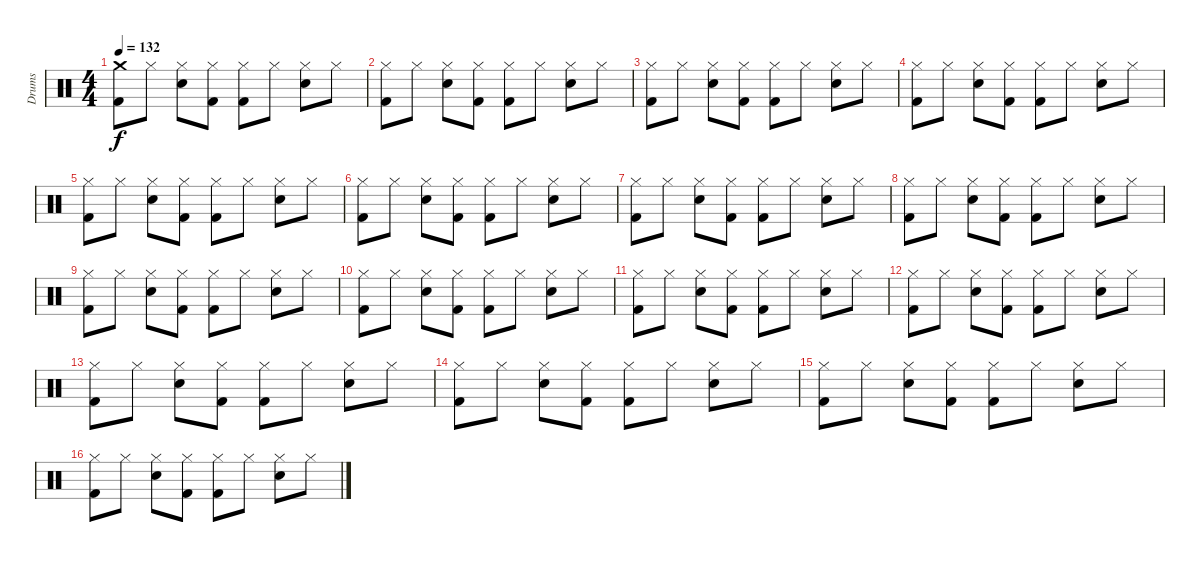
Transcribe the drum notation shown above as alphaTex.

\track ("Drums" "Drums") {instrument percussion}
\staff {score}
\articulation defaults
\ts (4 4)
\tempo 132
\clef neutral
\ks c
("Crash medium (hit)" "Kick (hit) 2").8{dy f} "Hi-Hat (closed)".8 ("Hi-Hat (closed)" "Snare (hit) 2").8 ("Hi-Hat (closed)" "Kick (hit) 2").8 ("Hi-Hat (closed)" "Kick (hit) 2").8 "Hi-Hat (closed)".8 ("Hi-Hat (closed)" "Snare (hit) 2").8 "Hi-Hat (closed)".8 |
("Hi-Hat (closed)" "Kick (hit) 2").8 "Hi-Hat (closed)".8 ("Hi-Hat (closed)" "Snare (hit) 2").8 ("Hi-Hat (closed)" "Kick (hit) 2").8 ("Hi-Hat (closed)" "Kick (hit) 2").8 "Hi-Hat (closed)".8 ("Hi-Hat (closed)" "Snare (hit) 2").8 "Hi-Hat (closed)".8 |
("Hi-Hat (closed)" "Kick (hit) 2").8 "Hi-Hat (closed)".8 ("Hi-Hat (closed)" "Snare (hit) 2").8 ("Hi-Hat (closed)" "Kick (hit) 2").8 ("Hi-Hat (closed)" "Kick (hit) 2").8 "Hi-Hat (closed)".8 ("Hi-Hat (closed)" "Snare (hit) 2").8 "Hi-Hat (closed)".8 |
("Hi-Hat (closed)" "Kick (hit) 2").8 "Hi-Hat (closed)".8 ("Hi-Hat (closed)" "Snare (hit) 2").8 ("Hi-Hat (closed)" "Kick (hit) 2").8 ("Hi-Hat (closed)" "Kick (hit) 2").8 "Hi-Hat (closed)".8 ("Hi-Hat (closed)" "Snare (hit) 2").8 "Hi-Hat (closed)".8 |
("Hi-Hat (closed)" "Kick (hit) 2").8 "Hi-Hat (closed)".8 ("Hi-Hat (closed)" "Snare (hit) 2").8 ("Hi-Hat (closed)" "Kick (hit) 2").8 ("Hi-Hat (closed)" "Kick (hit) 2").8 "Hi-Hat (closed)".8 ("Hi-Hat (closed)" "Snare (hit) 2").8 "Hi-Hat (closed)".8 |
("Hi-Hat (closed)" "Kick (hit) 2").8 "Hi-Hat (closed)".8 ("Hi-Hat (closed)" "Snare (hit) 2").8 ("Hi-Hat (closed)" "Kick (hit) 2").8 ("Hi-Hat (closed)" "Kick (hit) 2").8 "Hi-Hat (closed)".8 ("Hi-Hat (closed)" "Snare (hit) 2").8 "Hi-Hat (closed)".8 |
("Hi-Hat (closed)" "Kick (hit) 2").8 "Hi-Hat (closed)".8 ("Hi-Hat (closed)" "Snare (hit) 2").8 ("Hi-Hat (closed)" "Kick (hit) 2").8 ("Hi-Hat (closed)" "Kick (hit) 2").8 "Hi-Hat (closed)".8 ("Hi-Hat (closed)" "Snare (hit) 2").8 "Hi-Hat (closed)".8 |
("Hi-Hat (closed)" "Kick (hit) 2").8 "Hi-Hat (closed)".8 ("Hi-Hat (closed)" "Snare (hit) 2").8 ("Hi-Hat (closed)" "Kick (hit) 2").8 ("Hi-Hat (closed)" "Kick (hit) 2").8 "Hi-Hat (closed)".8 ("Hi-Hat (closed)" "Snare (hit) 2").8 "Hi-Hat (closed)".8 |
("Hi-Hat (closed)" "Kick (hit) 2").8 "Hi-Hat (closed)".8 ("Hi-Hat (closed)" "Snare (hit) 2").8 ("Hi-Hat (closed)" "Kick (hit) 2").8 ("Hi-Hat (closed)" "Kick (hit) 2").8 "Hi-Hat (closed)".8 ("Hi-Hat (closed)" "Snare (hit) 2").8 "Hi-Hat (closed)".8 |
("Hi-Hat (closed)" "Kick (hit) 2").8 "Hi-Hat (closed)".8 ("Hi-Hat (closed)" "Snare (hit) 2").8 ("Hi-Hat (closed)" "Kick (hit) 2").8 ("Hi-Hat (closed)" "Kick (hit) 2").8 "Hi-Hat (closed)".8 ("Hi-Hat (closed)" "Snare (hit) 2").8 "Hi-Hat (closed)".8 |
("Hi-Hat (closed)" "Kick (hit) 2").8 "Hi-Hat (closed)".8 ("Hi-Hat (closed)" "Snare (hit) 2").8 ("Hi-Hat (closed)" "Kick (hit) 2").8 ("Hi-Hat (closed)" "Kick (hit) 2").8 "Hi-Hat (closed)".8 ("Hi-Hat (closed)" "Snare (hit) 2").8 "Hi-Hat (closed)".8 |
("Hi-Hat (closed)" "Kick (hit) 2").8 "Hi-Hat (closed)".8 ("Hi-Hat (closed)" "Snare (hit) 2").8 ("Hi-Hat (closed)" "Kick (hit) 2").8 ("Hi-Hat (closed)" "Kick (hit) 2").8 "Hi-Hat (closed)".8 ("Hi-Hat (closed)" "Snare (hit) 2").8 "Hi-Hat (closed)".8 |
("Hi-Hat (closed)" "Kick (hit) 2").8 "Hi-Hat (closed)".8 ("Hi-Hat (closed)" "Snare (hit) 2").8 ("Hi-Hat (closed)" "Kick (hit) 2").8 ("Hi-Hat (closed)" "Kick (hit) 2").8 "Hi-Hat (closed)".8 ("Hi-Hat (closed)" "Snare (hit) 2").8 "Hi-Hat (closed)".8 |
("Hi-Hat (closed)" "Kick (hit) 2").8 "Hi-Hat (closed)".8 ("Hi-Hat (closed)" "Snare (hit) 2").8 ("Hi-Hat (closed)" "Kick (hit) 2").8 ("Hi-Hat (closed)" "Kick (hit) 2").8 "Hi-Hat (closed)".8 ("Hi-Hat (closed)" "Snare (hit) 2").8 "Hi-Hat (closed)".8 |
("Hi-Hat (closed)" "Kick (hit) 2").8 "Hi-Hat (closed)".8 ("Hi-Hat (closed)" "Snare (hit) 2").8 ("Hi-Hat (closed)" "Kick (hit) 2").8 ("Hi-Hat (closed)" "Kick (hit) 2").8 "Hi-Hat (closed)".8 ("Hi-Hat (closed)" "Snare (hit) 2").8 "Hi-Hat (closed)".8 |
("Hi-Hat (closed)" "Kick (hit) 2").8 "Hi-Hat (closed)".8 ("Hi-Hat (closed)" "Snare (hit) 2").8 ("Hi-Hat (closed)" "Kick (hit) 2").8 ("Hi-Hat (closed)" "Kick (hit) 2").8 "Hi-Hat (closed)".8 ("Hi-Hat (closed)" "Snare (hit) 2").8 "Hi-Hat (closed)".8
